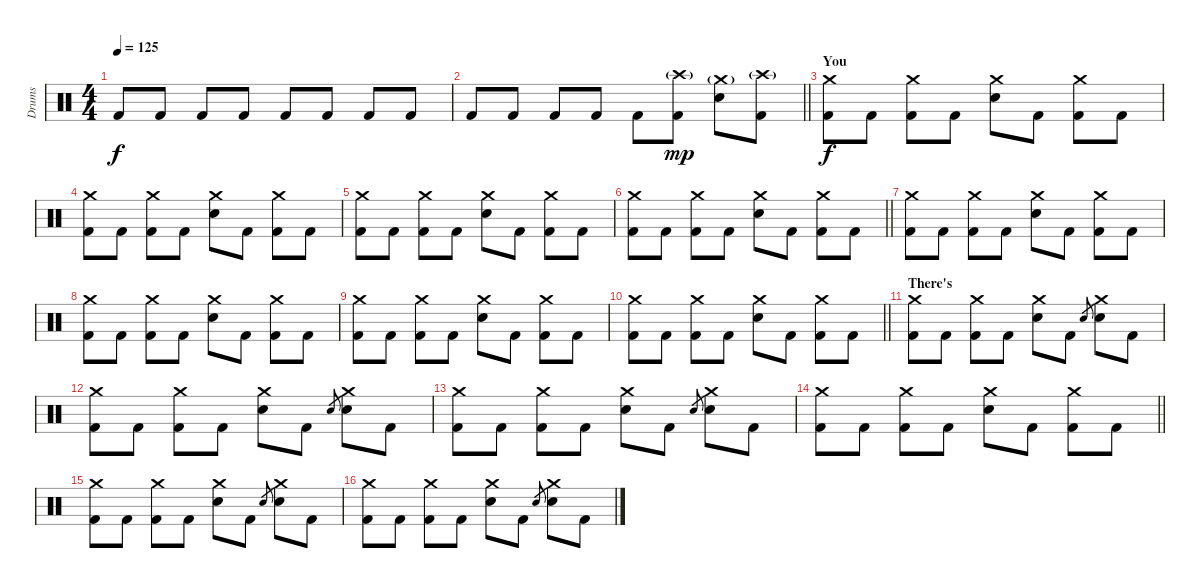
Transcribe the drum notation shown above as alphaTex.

\track ("Drums" "Drums") {instrument percussion}
\staff {score}
\articulation defaults
\ts (4 4)
\tempo 125
\clef neutral
\ks c "Kick (hit) 2".8{dy f} "Kick (hit) 2".8 "Kick (hit) 2".8 "Kick (hit) 2".8 "Kick (hit) 2".8 "Kick (hit) 2".8 "Kick (hit) 2".8 "Kick (hit) 2".8
|
\barLineRight lightlight "Kick (hit) 2".8 "Kick (hit) 2".8 "Kick (hit) 2".8 "Kick (hit) 2".8 "Kick (hit) 2".8
("Crash high (hit)"{g} "Kick (hit) 2").8{dy mp} ("Crash medium (hit)"{g} "Snare (hit) 2").8 ("Crash high (hit)"{g} "Kick (hit) 2").8 |
\section ("" "You")
("Crash medium (hit)" "Kick (hit) 2").8{dy f} "Kick (hit) 2".8 ("Crash medium (hit)" "Kick (hit) 2").8 "Kick (hit) 2".8 ("Crash medium (hit)" "Snare (hit) 2").8 "Kick (hit) 2".8 ("Crash medium (hit)" "Kick (hit) 2").8 "Kick (hit) 2".8 |
("Crash medium (hit)" "Kick (hit) 2").8 "Kick (hit) 2".8 ("Crash medium (hit)" "Kick (hit) 2").8 "Kick (hit) 2".8 ("Crash medium (hit)" "Snare (hit) 2").8 "Kick (hit) 2".8 ("Crash medium (hit)" "Kick (hit) 2").8 "Kick (hit) 2".8 |
("Crash medium (hit)" "Kick (hit) 2").8 "Kick (hit) 2".8 ("Crash medium (hit)" "Kick (hit) 2").8 "Kick (hit) 2".8 ("Crash medium (hit)" "Snare (hit) 2").8 "Kick (hit) 2".8 ("Crash medium (hit)" "Kick (hit) 2").8 "Kick (hit) 2".8 |
\barLineRight lightlight
("Crash medium (hit)" "Kick (hit) 2").8 "Kick (hit) 2".8 ("Crash medium (hit)" "Kick (hit) 2").8 "Kick (hit) 2".8 ("Crash medium (hit)" "Snare (hit) 2").8 "Kick (hit) 2".8 ("Crash medium (hit)" "Kick (hit) 2").8 "Kick (hit) 2".8 |
("Crash medium (hit)" "Kick (hit) 2").8 "Kick (hit) 2".8 ("Crash medium (hit)" "Kick (hit) 2").8 "Kick (hit) 2".8 ("Crash medium (hit)" "Snare (hit) 2").8 "Kick (hit) 2".8 ("Crash medium (hit)" "Kick (hit) 2").8 "Kick (hit) 2".8 |
("Crash medium (hit)" "Kick (hit) 2").8 "Kick (hit) 2".8 ("Crash medium (hit)" "Kick (hit) 2").8 "Kick (hit) 2".8 ("Crash medium (hit)" "Snare (hit) 2").8 "Kick (hit) 2".8 ("Crash medium (hit)" "Kick (hit) 2").8 "Kick (hit) 2".8 |
("Crash medium (hit)" "Kick (hit) 2").8 "Kick (hit) 2".8 ("Crash medium (hit)" "Kick (hit) 2").8 "Kick (hit) 2".8 ("Crash medium (hit)" "Snare (hit) 2").8 "Kick (hit) 2".8 ("Crash medium (hit)" "Kick (hit) 2").8 "Kick (hit) 2".8 |
\barLineRight lightlight
("Crash medium (hit)" "Kick (hit) 2").8 "Kick (hit) 2".8 ("Crash medium (hit)" "Kick (hit) 2").8 "Kick (hit) 2".8 ("Crash medium (hit)" "Snare (hit) 2").8 "Kick (hit) 2".8 ("Crash medium (hit)" "Kick (hit) 2").8 "Kick (hit) 2".8 |
\section ("" "There's")
("Crash medium (hit)" "Kick (hit) 2").8 "Kick (hit) 2".8 ("Crash medium (hit)" "Kick (hit) 2").8 "Kick (hit) 2".8 ("Crash medium (hit)" "Snare (hit) 2").8 "Kick (hit) 2".8 "Electric Snare (hit)".8{gr} ("Crash medium (hit)" "Electric Snare (hit)").8 "Kick (hit) 2".8 |
("Crash medium (hit)" "Kick (hit) 2").8 "Kick (hit) 2".8 ("Crash medium (hit)" "Kick (hit) 2").8 "Kick (hit) 2".8 ("Crash medium (hit)" "Snare (hit) 2").8 "Kick (hit) 2".8 "Electric Snare (hit)".8{gr} ("Crash medium (hit)" "Electric Snare (hit)").8 "Kick (hit) 2".8 |
("Crash medium (hit)" "Kick (hit) 2").8 "Kick (hit) 2".8 ("Crash medium (hit)" "Kick (hit) 2").8 "Kick (hit) 2".8 ("Crash medium (hit)" "Snare (hit) 2").8 "Kick (hit) 2".8 "Electric Snare (hit)".8{gr} ("Crash medium (hit)" "Electric Snare (hit)").8 "Kick (hit) 2".8 |
\barLineRight lightlight
("Crash medium (hit)" "Kick (hit) 2").8 "Kick (hit) 2".8 ("Crash medium (hit)" "Kick (hit) 2").8 "Kick (hit) 2".8 ("Crash medium (hit)" "Snare (hit) 2").8 "Kick (hit) 2".8 ("Crash medium (hit)" "Kick (hit) 2").8 "Kick (hit) 2".8 |
("Crash medium (hit)" "Kick (hit) 2").8 "Kick (hit) 2".8 ("Crash medium (hit)" "Kick (hit) 2").8 "Kick (hit) 2".8 ("Crash medium (hit)" "Snare (hit) 2").8 "Kick (hit) 2".8 "Electric Snare (hit)".8{gr} ("Crash medium (hit)" "Electric Snare (hit)").8 "Kick (hit) 2".8 |
("Crash medium (hit)" "Kick (hit) 2").8 "Kick (hit) 2".8 ("Crash medium (hit)" "Kick (hit) 2").8 "Kick (hit) 2".8 ("Crash medium (hit)" "Snare (hit) 2").8 "Kick (hit) 2".8 "Electric Snare (hit)".8{gr} ("Crash medium (hit)" "Electric Snare (hit)").8 "Kick (hit) 2".8
